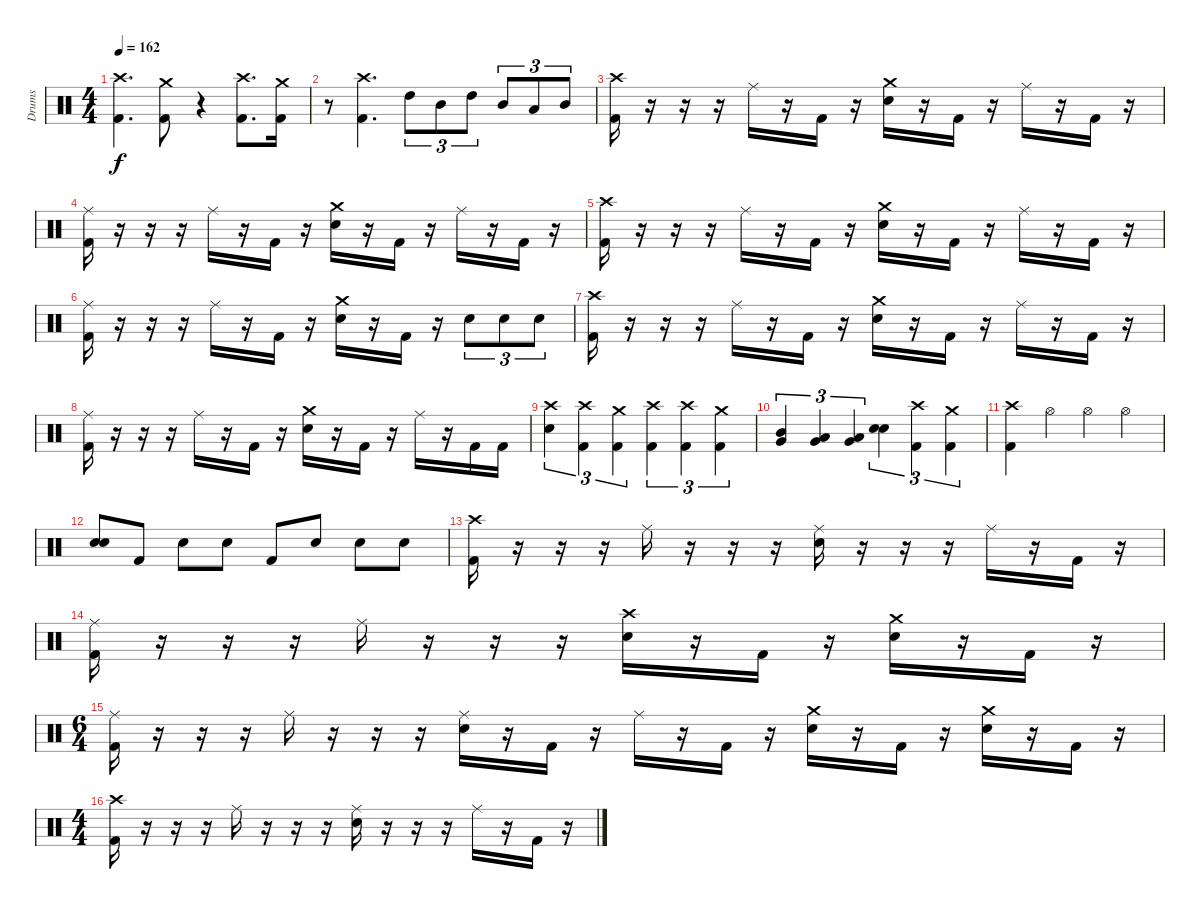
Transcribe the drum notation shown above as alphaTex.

\track ("Drums" "Drums") {instrument percussion}
\staff {score}
\articulation defaults
\ts (4 4)
\tempo 162
\clef neutral
\ks c
("Crash high (hit)" "Kick (hit) 2").4{d dy f} ("Crash medium (hit)" "Kick (hit) 2").8 r.4 ("Crash high (hit)" "Kick (hit) 2").8{d} ("Crash medium (hit)" "Kick (hit) 2").16 |
r.8 ("Crash high (hit)" "Kick (hit) 2").4{d} "High Tom (hit)".8{tu (3 2)} "Mid Tom (hit)".8{tu (3 2)} "High Tom (hit)".8{tu (3 2)} "Mid Tom (hit)".8{tu (3 2)} "Low Tom (hit)".8{tu (3 2)} "Mid Tom (hit)".8{tu (3 2)} |
("Crash high (hit)" "Kick (hit) 2").16 r.16 r.16 r.16 "Ride (middle)".16 r.16 "Kick (hit) 2".16 r.16 ("Crash medium (hit)" "Snare (hit) 2").16 r.16 "Kick (hit) 2".16 r.16 "Ride (middle)".16 r.16 "Kick (hit) 2".16 r.16 |
("Ride (middle)" "Kick (hit) 2").16 r.16 r.16 r.16 "Ride (middle)".16 r.16 "Kick (hit) 2".16 r.16 ("Crash medium (hit)" "Snare (hit) 2").16 r.16 "Kick (hit) 2".16 r.16 "Ride (middle)".16 r.16 "Kick (hit) 2".16 r.16 |
("Crash high (hit)" "Kick (hit) 2").16 r.16 r.16 r.16 "Ride (middle)".16 r.16 "Kick (hit) 2".16 r.16 ("Crash medium (hit)" "Snare (hit) 2").16 r.16 "Kick (hit) 2".16 r.16 "Ride (middle)".16 r.16 "Kick (hit) 2".16 r.16 |
("Ride (middle)" "Kick (hit) 2").16 r.16 r.16 r.16 "Ride (middle)".16 r.16 "Kick (hit) 2".16 r.16 ("Crash medium (hit)" "Snare (hit) 2").16 r.16 "Kick (hit) 2".16 r.16 "Snare (hit) 2".8{tu (3 2)} "Snare (hit) 2".8{tu (3 2)} "Snare (hit) 2".8{tu (3 2)} |
("Crash high (hit)" "Kick (hit) 2").16 r.16 r.16 r.16 "Ride (middle)".16 r.16 "Kick (hit) 2".16 r.16 ("Crash medium (hit)" "Snare (hit) 2").16 r.16 "Kick (hit) 2".16 r.16 "Ride (middle)".16 r.16 "Kick (hit) 2".16 r.16 |
("Ride (middle)" "Kick (hit) 2").16 r.16 r.16 r.16 "Ride (middle)".16 r.16 "Kick (hit) 2".16 r.16 ("Crash medium (hit)" "Snare (hit) 2").16 r.16 "Kick (hit) 2".16 r.16 "Ride (middle)".16 r.16 "Kick (hit) 2".16 "Kick (hit) 2".16 |
("Crash high (hit)" "Snare (hit) 2").4{tu (3 2)} ("Crash high (hit)" "Kick (hit) 2").4{tu (3 2)} ("Crash medium (hit)" "Kick (hit) 2").4{tu (3 2)} ("Crash high (hit)" "Kick (hit) 2").4{tu (3 2)} ("Crash high (hit)" "Kick (hit) 2").4{tu (3 2)} ("Crash medium (hit)" "Kick (hit) 2").4{tu (3 2)} |
("Very Low Tom (hit)" "Mid Tom (hit)").4{tu (3 2)} ("Low Tom (hit)" "Very Low Tom (hit)").4{tu (3 2)} ("Low Floor Tom (hit)" "Very Low Tom (hit)").4{tu (3 2)} ("Snare (hit) 2" "Snare (hit) 2").4{tu (3 2)} ("Crash high (hit)" "Kick (hit) 2").4{tu (3 2)} ("Crash medium (hit)" "Kick (hit) 2").4{tu (3 2)} |
("Crash high (hit)" "Kick (hit) 2").4 "Hi-Hat (open)".4 "Hi-Hat (open)".4 "Hi-Hat (open)".4 |
("Snare (hit) 2" "Snare (hit) 2").8 "Kick (hit) 2".8 "Snare (hit) 2".8 "Snare (hit) 2".8 "Kick (hit) 2".8 "Snare (hit) 2".8 "Snare (hit) 2".8 "Snare (hit) 2".8 |
("Crash high (hit)" "Kick (hit) 2").16 r.16 r.16 r.16 "Ride (middle)".16 r.16 r.16 r.16 ("Ride (middle)" "Snare (hit) 2").16 r.16 r.16 r.16 "Ride (middle)".16 r.16 "Kick (hit) 2".16 r.16 |
("Ride (middle)" "Kick (hit) 2").16 r.16 r.16 r.16 "Ride (middle)".16 r.16 r.16 r.16 ("Crash high (hit)" "Snare (hit) 2").16 r.16 "Kick (hit) 2".16 r.16 ("Crash medium (hit)" "Snare (hit) 2").16 r.16 "Kick (hit) 2".16 r.16 |
\ts (6 4)
("Ride (middle)" "Kick (hit) 2").16 r.16 r.16 r.16 "Ride (middle)".16 r.16 r.16 r.16 ("Ride (middle)" "Snare (hit) 2").16 r.16 "Kick (hit) 2".16 r.16 "Ride (middle)".16 r.16 "Kick (hit) 2".16 r.16 ("Crash medium (hit)" "Snare (hit) 2").16 r.16 "Kick (hit) 2".16 r.16 ("Crash medium (hit)" "Snare (hit) 2").16 r.16 "Kick (hit) 2".16 r.16 |
\ts (4 4)
("Crash high (hit)" "Kick (hit) 2").16 r.16 r.16 r.16 "Ride (middle)".16 r.16 r.16 r.16 ("Ride (middle)" "Snare (hit) 2").16 r.16 r.16 r.16 "Ride (middle)".16 r.16 "Kick (hit) 2".16 r.16
